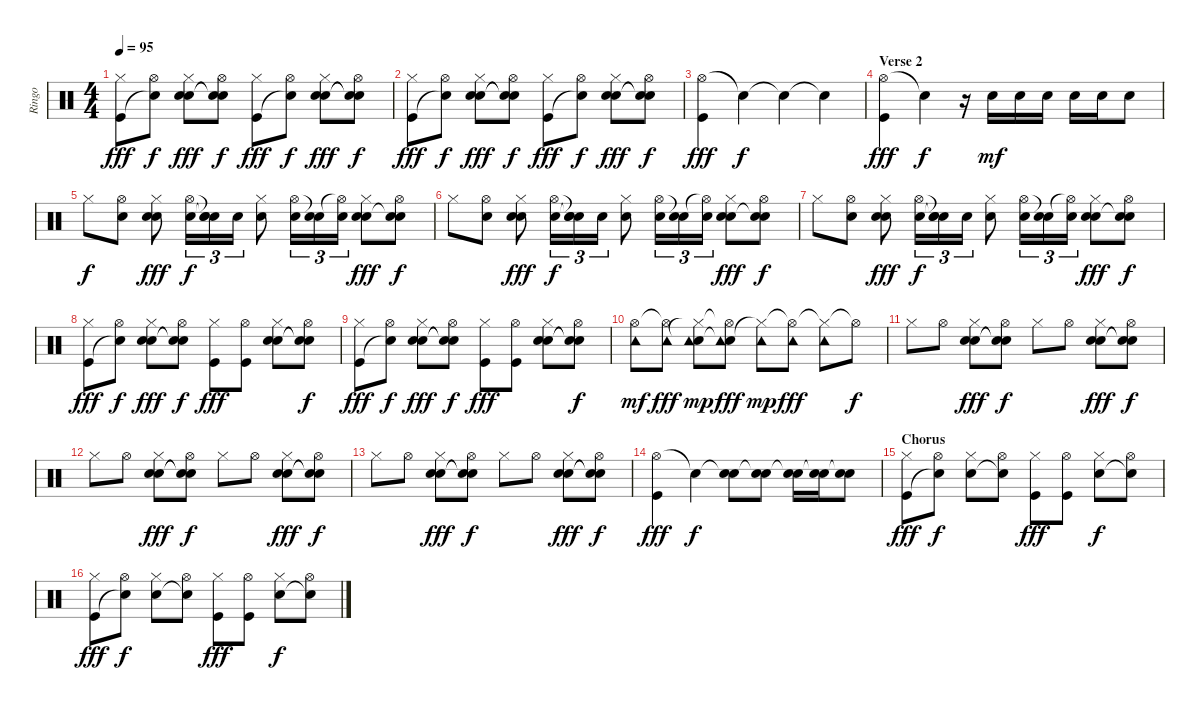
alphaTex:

\track ("Ringo" "Ringo") {instrument percussion}
\staff {score}
\articulation defaults
\ts (4 4)
\tempo 95
\clef neutral
\ks c
("Hi-Hat (closed)" "Kick (hit)").8{dy fff} ("Hi-Hat (open)" "Snare (hit)"{t}).8{dy f} ("Hand Clap (hit)" "Hi-Hat (closed)" "Snare (hit) 2").8{dy fff} ("Snare (hit)"{t} "Hi-Hat (open)" "Snare (hit)"{t}).8{dy f} ("Hi-Hat (closed)" "Kick (hit)").8{dy fff} ("Hi-Hat (open)" "Snare (hit)"{t}).8{dy f} ("Hand Clap (hit)" "Hi-Hat (closed)" "Snare (hit) 2").8{dy fff} ("Snare (hit)"{t} "Hi-Hat (open)" "Snare (hit)"{t}).8{dy f} |
("Hi-Hat (closed)" "Kick (hit)").8{dy fff} ("Hi-Hat (open)" "Snare (hit)"{t}).8{dy f} ("Hand Clap (hit)" "Hi-Hat (closed)" "Snare (hit) 2").8{dy fff} ("Snare (hit)"{t} "Hi-Hat (open)" "Snare (hit)"{t}).8{dy f} ("Hi-Hat (closed)" "Kick (hit)").8{dy fff} ("Hi-Hat (open)" "Snare (hit)"{t}).8{dy f} ("Hand Clap (hit)" "Hi-Hat (closed)" "Snare (hit) 2").8{dy fff} ("Snare (hit)"{t} "Hi-Hat (open)" "Snare (hit)"{t}).8{dy f} |
("Hi-Hat (open)" "Kick (hit)").4{dy fff} "Snare (hit)"{t}.4{dy f} "Snare (hit)"{t}.4 "Snare (hit)"{t}.4 |
\section ("" "Verse 2")
("Hi-Hat (open)" "Kick (hit)").4{dy fff} "Snare (hit)"{t}.4{dy f} r.16 "Snare (hit) 2".16{dy mf} "Snare (hit) 2".16 "Snare (hit) 2".16 "Snare (hit) 2".16 "Snare (hit) 2".16 "Snare (hit) 2".8 |
"Hi-Hat (closed)".8{dy f} ("Hi-Hat (open)" "Snare (hit) 2").8 ("Hand Clap (hit)" "Hi-Hat (closed)" "Snare (hit) 2").8{dy fff} ("Hi-Hat (open)" "Snare (hit) 2").16{tu (3 2) dy f} ("Snare (hit)"{t} "Snare (hit)"{t} "Snare (hit) 2").16{tu (3 2)} "Snare (hit) 2".16{tu (3 2)} ("Hi-Hat (closed)" "Snare (hit) 2").8 ("Hi-Hat (open)" "Snare (hit) 2").16{tu (3 2)} ("Snare (hit)"{t} "Snare (hit) 2").16{tu (3 2)} ("Hi-Hat (open)"{t} "Snare (hit) 2").16{tu (3 2)} ("Hand Clap (hit)" "Hi-Hat (closed)" "Snare (hit) 2").8{dy fff} ("Snare (hit)"{t} "Hi-Hat (open)" "Snare (hit) 2").8{dy f} |
"Hi-Hat (closed)".8 ("Hi-Hat (open)" "Snare (hit) 2").8 ("Hand Clap (hit)" "Hi-Hat (closed)" "Snare (hit) 2").8{dy fff} ("Hi-Hat (open)" "Snare (hit) 2").16{tu (3 2) dy f} ("Snare (hit)"{t} "Snare (hit)"{t} "Snare (hit) 2").16{tu (3 2)} "Snare (hit) 2".16{tu (3 2)} ("Hi-Hat (closed)" "Snare (hit) 2").8 ("Hi-Hat (open)" "Snare (hit) 2").16{tu (3 2)} ("Snare (hit)"{t} "Snare (hit) 2").16{tu (3 2)} ("Hi-Hat (open)"{t} "Snare (hit) 2").16{tu (3 2)} ("Hand Clap (hit)" "Hi-Hat (closed)" "Snare (hit) 2").8{dy fff} ("Snare (hit)"{t} "Hi-Hat (open)" "Snare (hit) 2").8{dy f} |
"Hi-Hat (closed)".8 ("Hi-Hat (open)" "Snare (hit) 2").8 ("Hand Clap (hit)" "Hi-Hat (closed)" "Snare (hit) 2").8{dy fff} ("Hi-Hat (open)" "Snare (hit) 2").16{tu (3 2) dy f} ("Snare (hit)"{t} "Snare (hit)"{t} "Snare (hit) 2").16{tu (3 2)} "Snare (hit) 2".16{tu (3 2)} ("Hi-Hat (closed)" "Snare (hit) 2").8 ("Hi-Hat (open)" "Snare (hit) 2").16{tu (3 2)} ("Snare (hit)"{t} "Snare (hit) 2").16{tu (3 2)} ("Hi-Hat (open)"{t} "Snare (hit) 2").16{tu (3 2)} ("Hand Clap (hit)" "Hi-Hat (closed)" "Snare (hit) 2").8{dy fff} ("Snare (hit)"{t} "Hi-Hat (open)" "Snare (hit) 2").8{dy f} |
("Hi-Hat (closed)" "Kick (hit)").8{dy fff} ("Hi-Hat (open)" "Snare (hit)"{t}).8{dy f} ("Hand Clap (hit)" "Hi-Hat (closed)" "Snare (hit) 2").8{dy fff} ("Snare (hit)"{t} "Hi-Hat (open)" "Snare (hit)"{t}).8{dy f} ("Hi-Hat (closed)" "Kick (hit)").8{dy fff} ("Hi-Hat (open)" "Kick (hit)").8 ("Hand Clap (hit)" "Hi-Hat (closed)" "Snare (hit) 2").8 ("Snare (hit)"{t} "Hi-Hat (open)" "Snare (hit)"{t}).8{dy f} |
("Hi-Hat (closed)" "Kick (hit)").8{dy fff} ("Hi-Hat (open)" "Snare (hit)"{t}).8{dy f} ("Hand Clap (hit)" "Hi-Hat (closed)" "Snare (hit) 2").8{dy fff} ("Snare (hit)"{t} "Hi-Hat (open)" "Snare (hit)"{t}).8{dy f} ("Hi-Hat (closed)" "Kick (hit)").8{dy fff} ("Hi-Hat (open)" "Kick (hit)").8 ("Hand Clap (hit)" "Hi-Hat (closed)" "Snare (hit) 2").8 ("Snare (hit)"{t} "Hi-Hat (open)" "Snare (hit)"{t}).8{dy f} |
("Hi-Hat (open)" "Tambourine (hit)").8{dy mf} ("Hi-Hat (open)"{t} "Tambourine (hit)").8{dy fff} ("Hand Clap (hit)" "Hi-Hat (closed)"{t} "Tambourine (hit)").8{dy mp} ("Snare (hit)"{t} "Hi-Hat (open)"{t} "Tambourine (hit)").8{dy fff} ("Hi-Hat (closed)"{t} "Tambourine (hit)").8{dy mp} ("Hi-Hat (open)"{t} "Tambourine (hit)").8{dy fff} ("Hi-Hat (closed)"{t} "Tambourine (hit)").8 "Hi-Hat (open)"{t}.8{dy f} |
"Hi-Hat (closed)".8 "Hi-Hat (open)".8 ("Hand Clap (hit)" "Hi-Hat (closed)" "Snare (hit) 2").8{dy fff} ("Snare (hit)"{t} "Hi-Hat (open)" "Snare (hit)"{t}).8{dy f} "Hi-Hat (closed)".8 "Hi-Hat (open)".8 ("Hand Clap (hit)" "Hi-Hat (closed)" "Snare (hit) 2").8{dy fff} ("Snare (hit)"{t} "Hi-Hat (open)" "Snare (hit)"{t}).8{dy f} |
"Hi-Hat (closed)".8 "Hi-Hat (open)".8 ("Hand Clap (hit)" "Hi-Hat (closed)" "Snare (hit) 2").8{dy fff} ("Snare (hit)"{t} "Hi-Hat (open)" "Snare (hit)"{t}).8{dy f} "Hi-Hat (closed)".8 "Hi-Hat (open)".8 ("Hand Clap (hit)" "Hi-Hat (closed)" "Snare (hit) 2").8{dy fff} ("Snare (hit)"{t} "Hi-Hat (open)" "Snare (hit)"{t}).8{dy f} |
"Hi-Hat (closed)".8 "Hi-Hat (open)".8 ("Hand Clap (hit)" "Hi-Hat (closed)" "Snare (hit) 2").8{dy fff} ("Snare (hit)"{t} "Hi-Hat (open)" "Snare (hit)"{t}).8{dy f} "Hi-Hat (closed)".8 "Hi-Hat (open)".8 ("Hand Clap (hit)" "Hi-Hat (closed)" "Snare (hit) 2").8{dy fff} ("Snare (hit)"{t} "Hi-Hat (open)" "Snare (hit)"{t}).8{dy f} |
("Hi-Hat (open)" "Kick (hit)").4{dy fff} "Snare (hit)"{t}.4{dy f} ("Snare (hit)"{t} "Snare (hit) 2").8 ("Snare (hit)"{t} "Snare (hit) 2").8 ("Snare (hit)"{t} "Snare (hit) 2").16 ("Snare (hit)"{t} "Snare (hit) 2").16 ("Snare (hit)"{t} "Snare (hit) 2").8 |
\section ("" "Chorus")
("Hi-Hat (closed)" "Kick (hit)").8{dy fff} ("Hi-Hat (open)" "Snare (hit)"{t}).8{dy f} ("Hi-Hat (closed)" "Snare (hit) 2").8 ("Hi-Hat (open)" "Snare (hit)"{t}).8 ("Hi-Hat (closed)" "Kick (hit)").8{dy fff} ("Hi-Hat (open)" "Kick (hit)").8 ("Hi-Hat (closed)" "Snare (hit) 2").8{dy f} ("Hi-Hat (open)" "Snare (hit)"{t}).8 |
("Hi-Hat (closed)" "Kick (hit)").8{dy fff} ("Hi-Hat (open)" "Snare (hit)"{t}).8{dy f} ("Hi-Hat (closed)" "Snare (hit) 2").8 ("Hi-Hat (open)" "Snare (hit)"{t}).8 ("Hi-Hat (closed)" "Kick (hit)").8{dy fff} ("Hi-Hat (open)" "Kick (hit)").8 ("Hi-Hat (closed)" "Snare (hit) 2").8{dy f} ("Hi-Hat (open)" "Snare (hit)"{t}).8
